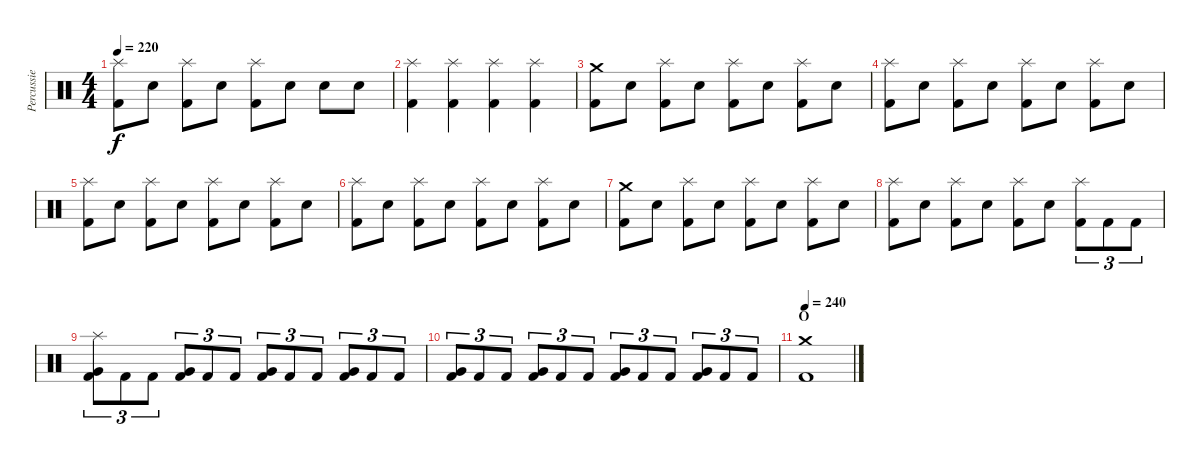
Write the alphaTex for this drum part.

\track ("Percussie" "Percussie") {instrument percussion}
\staff {score}
\articulation defaults
\ts (4 4)
\tempo 220
\clef neutral
\ks c
("Splash (hit)" "Kick (hit) 2").8{dy f} "Electric Snare (hit)".8 ("Splash (hit)" "Kick (hit) 2").8 "Electric Snare (hit)".8 ("Splash (hit)" "Kick (hit) 2").8 "Electric Snare (hit)".8 "Electric Snare (hit)".8 "Electric Snare (hit)".8 |
("Splash (hit)" "Kick (hit) 2").4 ("Splash (hit)" "Kick (hit) 2").4 ("Splash (hit)" "Kick (hit) 2").4 ("Splash (hit)" "Kick (hit) 2").4 |
("Crash medium (hit)" "Kick (hit) 2").8 "Electric Snare (hit)".8 ("Splash (hit)" "Kick (hit) 2").8 "Electric Snare (hit)".8 ("Splash (hit)" "Kick (hit) 2").8 "Electric Snare (hit)".8 ("Splash (hit)" "Kick (hit) 2").8 "Electric Snare (hit)".8 |
("Splash (hit)" "Kick (hit) 2").8 "Electric Snare (hit)".8 ("Splash (hit)" "Kick (hit) 2").8 "Electric Snare (hit)".8 ("Splash (hit)" "Kick (hit) 2").8 "Electric Snare (hit)".8 ("Splash (hit)" "Kick (hit) 2").8 "Electric Snare (hit)".8 |
("Splash (hit)" "Kick (hit) 2").8 "Electric Snare (hit)".8 ("Splash (hit)" "Kick (hit) 2").8 "Electric Snare (hit)".8 ("Splash (hit)" "Kick (hit) 2").8 "Electric Snare (hit)".8 ("Splash (hit)" "Kick (hit) 2").8 "Electric Snare (hit)".8 |
("Splash (hit)" "Kick (hit) 2").8 "Electric Snare (hit)".8 ("Splash (hit)" "Kick (hit) 2").8 "Electric Snare (hit)".8 ("Splash (hit)" "Kick (hit) 2").8 "Electric Snare (hit)".8 ("Splash (hit)" "Kick (hit) 2").8 "Electric Snare (hit)".8 |
("Crash medium (hit)" "Kick (hit) 2").8 "Electric Snare (hit)".8 ("Splash (hit)" "Kick (hit) 2").8 "Electric Snare (hit)".8 ("Splash (hit)" "Kick (hit) 2").8 "Electric Snare (hit)".8 ("Splash (hit)" "Kick (hit) 2").8 "Electric Snare (hit)".8 |
("Splash (hit)" "Kick (hit) 2").8 "Electric Snare (hit)".8 ("Splash (hit)" "Kick (hit) 2").8 "Electric Snare (hit)".8 ("Splash (hit)" "Kick (hit) 2").8 "Electric Snare (hit)".8 ("Splash (hit)" "Kick (hit) 2").8{tu (3 2)} "Kick (hit) 2".8{tu (3 2)} "Kick (hit) 2".8{tu (3 2)} |
("Splash (hit)" "Very Low Tom (hit)" "Kick (hit) 2").8{tu (3 2)} "Kick (hit) 2".8{tu (3 2)} "Kick (hit) 2".8{tu (3 2)} ("Very Low Tom (hit)" "Kick (hit) 2").8{tu (3 2)} "Kick (hit) 2".8{tu (3 2)} "Kick (hit) 2".8{tu (3 2)} ("Very Low Tom (hit)" "Kick (hit) 2").8{tu (3 2)} "Kick (hit) 2".8{tu (3 2)} "Kick (hit) 2".8{tu (3 2)} ("Very Low Tom (hit)" "Kick (hit) 2").8{tu (3 2)} "Kick (hit) 2".8{tu (3 2)} "Kick (hit) 2".8{tu (3 2)} |
("Very Low Tom (hit)" "Kick (hit) 2").8{tu (3 2)} "Kick (hit) 2".8{tu (3 2)} "Kick (hit) 2".8{tu (3 2)} ("Very Low Tom (hit)" "Kick (hit) 2").8{tu (3 2)} "Kick (hit) 2".8{tu (3 2)} "Kick (hit) 2".8{tu (3 2)} ("Very Low Tom (hit)" "Kick (hit) 2").8{tu (3 2)} "Kick (hit) 2".8{tu (3 2)} "Kick (hit) 2".8{tu (3 2)} ("Very Low Tom (hit)" "Kick (hit) 2").8{tu (3 2)} "Kick (hit) 2".8{tu (3 2)} "Kick (hit) 2".8{tu (3 2)} |
\section ("" "O")
\tempo 240
("Crash medium (hit)" "Kick (hit) 2").1
